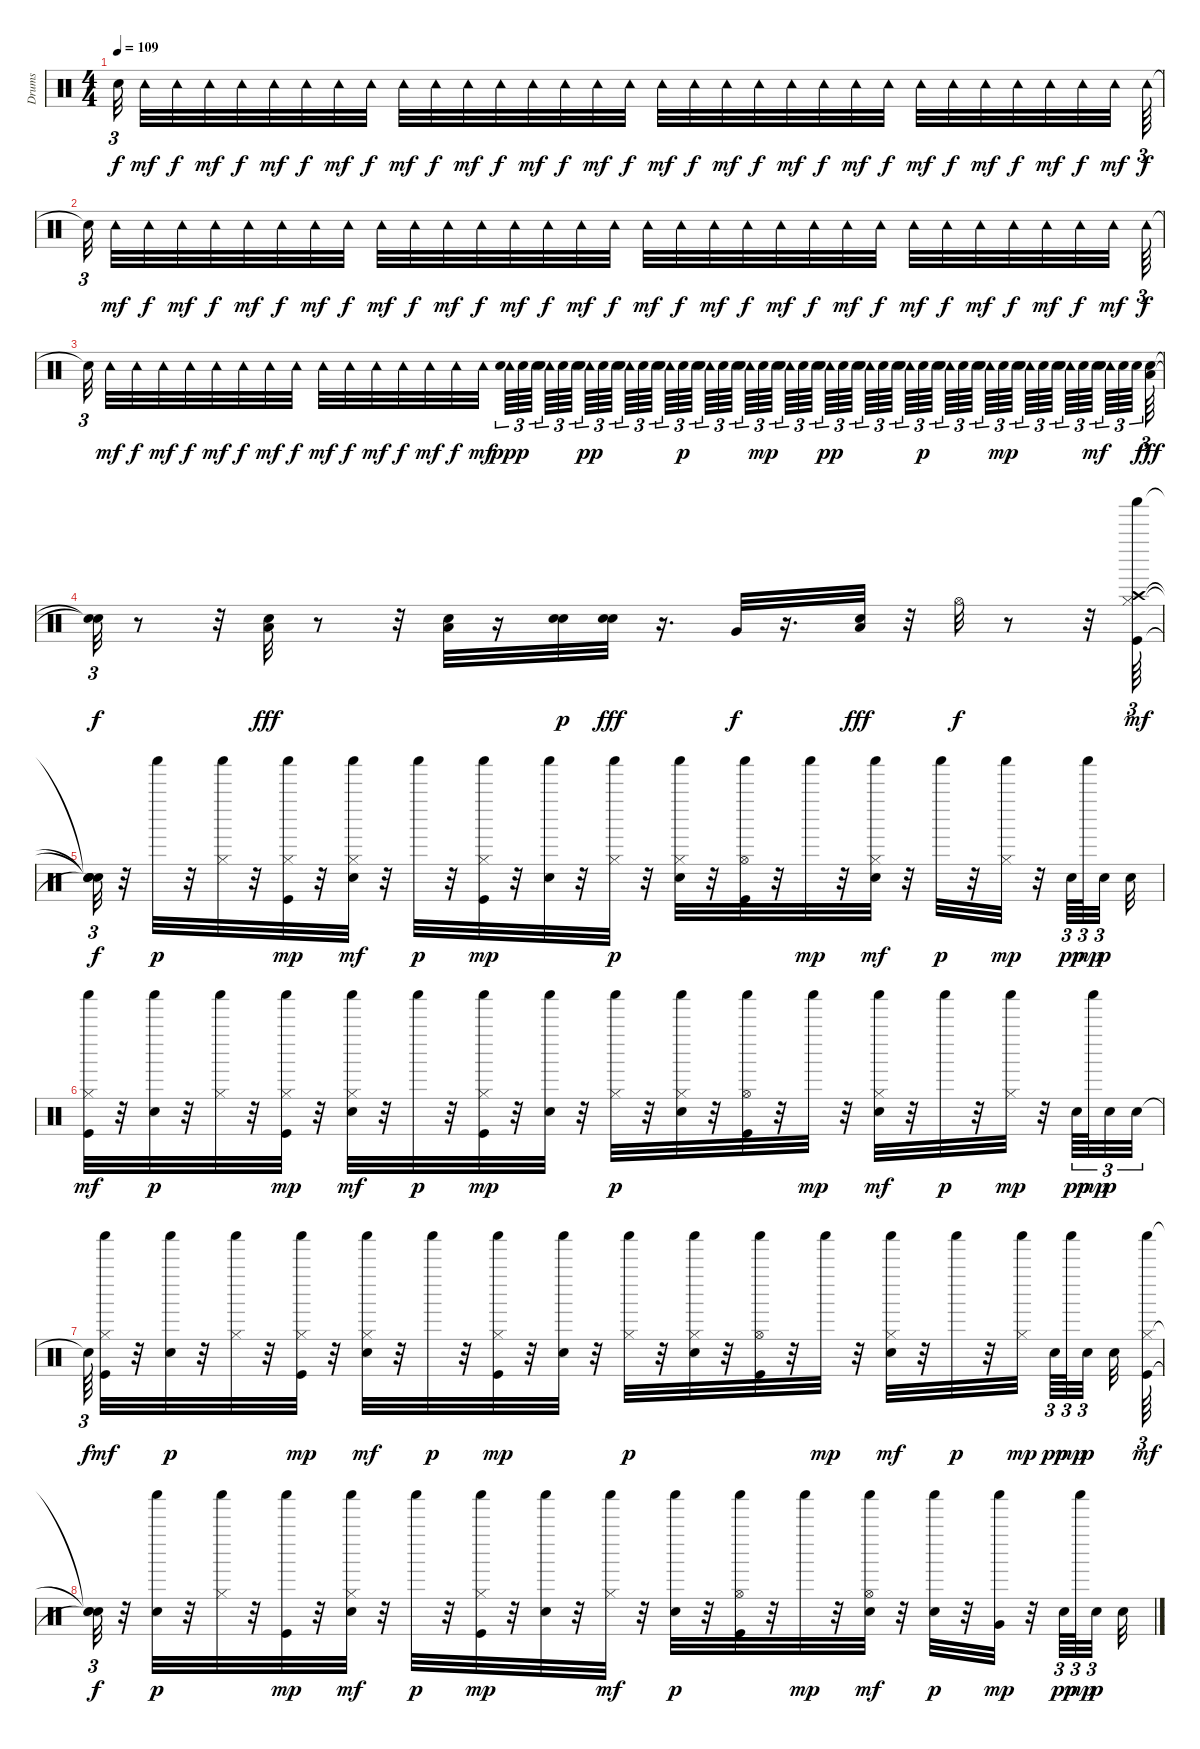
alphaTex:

\track ("Drums" "Drums") {instrument percussion}
\staff {score}
\articulation defaults
\ts (4 4)
\tempo 109
\clef neutral
\ks c "Snare (hit)"{t}.32{tu (3 2) dy f beam splitsecondary} "Tambourine (hit)".32{dy mf} "Tambourine (hit)".32{dy f} "Tambourine (hit)".32{dy mf} "Tambourine (hit)".32{dy f} "Tambourine (hit)".32{dy mf} "Tambourine (hit)".32{dy f} "Tambourine (hit)".32{dy mf} "Tambourine (hit)".32{dy f} "Tambourine (hit)".32{dy mf} "Tambourine (hit)".32{dy f} "Tambourine (hit)".32{dy mf} "Tambourine (hit)".32{dy f} "Tambourine (hit)".32{dy mf} "Tambourine (hit)".32{dy f} "Tambourine (hit)".32{dy mf} "Tambourine (hit)".32{dy f} "Tambourine (hit)".32{dy mf} "Tambourine (hit)".32{dy f} "Tambourine (hit)".32{dy mf} "Tambourine (hit)".32{dy f} "Tambourine (hit)".32{dy mf} "Tambourine (hit)".32{dy f} "Tambourine (hit)".32{dy mf} "Tambourine (hit)".32{dy f} "Tambourine (hit)".32{dy mf} "Tambourine (hit)".32{dy f} "Tambourine (hit)".32{dy mf} "Tambourine (hit)".32{dy f} "Tambourine (hit)".32{dy mf} "Tambourine (hit)".32{dy f} "Tambourine (hit)".32{dy mf beam splitsecondary} "Tambourine (hit)".64{tu (3 2) dy f}
|
"Snare (hit)"{t}.32{tu (3 2) beam splitsecondary} "Tambourine (hit)".32{dy mf} "Tambourine (hit)".32{dy f} "Tambourine (hit)".32{dy mf} "Tambourine (hit)".32{dy f} "Tambourine (hit)".32{dy mf} "Tambourine (hit)".32{dy f} "Tambourine (hit)".32{dy mf} "Tambourine (hit)".32{dy f} "Tambourine (hit)".32{dy mf} "Tambourine (hit)".32{dy f} "Tambourine (hit)".32{dy mf} "Tambourine (hit)".32{dy f} "Tambourine (hit)".32{dy mf} "Tambourine (hit)".32{dy f} "Tambourine (hit)".32{dy mf} "Tambourine (hit)".32{dy f} "Tambourine (hit)".32{dy mf} "Tambourine (hit)".32{dy f} "Tambourine (hit)".32{dy mf} "Tambourine (hit)".32{dy f} "Tambourine (hit)".32{dy mf} "Tambourine (hit)".32{dy f} "Tambourine (hit)".32{dy mf} "Tambourine (hit)".32{dy f} "Tambourine (hit)".32{dy mf} "Tambourine (hit)".32{dy f} "Tambourine (hit)".32{dy mf} "Tambourine (hit)".32{dy f} "Tambourine (hit)".32{dy mf} "Tambourine (hit)".32{dy f} "Tambourine (hit)".32{dy mf beam splitsecondary} "Tambourine (hit)".64{tu (3 2) dy f} |
"Snare (hit)"{t}.32{tu (3 2) beam splitsecondary} "Tambourine (hit)".32{dy mf} "Tambourine (hit)".32{dy f} "Tambourine (hit)".32{dy mf} "Tambourine (hit)".32{dy f} "Tambourine (hit)".32{dy mf} "Tambourine (hit)".32{dy f} "Tambourine (hit)".32{dy mf} "Tambourine (hit)".32{dy f} "Tambourine (hit)".32{dy mf} "Tambourine (hit)".32{dy f} "Tambourine (hit)".32{dy mf} "Tambourine (hit)".32{dy f} "Tambourine (hit)".32{dy mf} "Tambourine (hit)".32{dy f} "Tambourine (hit)".32{dy mf beam splitsecondary} ("Tambourine (hit)" "Snare (hit) 2").64{tu (3 2) dy ppp} "Snare (hit) 2".64{tu (3 2)} "Snare (hit) 2".64{tu (3 2) beam splitsecondary} ("Tambourine (hit)" "Snare (hit) 2").64{tu (3 2)} "Snare (hit) 2".64{tu (3 2)} "Snare (hit) 2".64{tu (3 2) beam splitsecondary} ("Tambourine (hit)" "Snare (hit) 2").64{tu (3 2) dy pp} "Snare (hit) 2".64{tu (3 2)} "Snare (hit) 2".64{tu (3 2) beam splitsecondary} ("Tambourine (hit)" "Snare (hit) 2").64{tu (3 2)} "Snare (hit) 2".64{tu (3 2)} "Snare (hit) 2".64{tu (3 2) beam splitsecondary} ("Tambourine (hit)" "Snare (hit) 2").64{tu (3 2)} "Snare (hit) 2".64{tu (3 2) dy p} "Snare (hit) 2".64{tu (3 2) beam splitsecondary} ("Tambourine (hit)" "Snare (hit) 2").64{tu (3 2)} "Snare (hit) 2".64{tu (3 2)} "Snare (hit) 2".64{tu (3 2) beam splitsecondary} ("Tambourine (hit)" "Snare (hit) 2").64{tu (3 2)} "Snare (hit) 2".64{tu (3 2) dy mp} "Snare (hit) 2".64{tu (3 2) beam splitsecondary} ("Tambourine (hit)" "Snare (hit) 2").64{tu (3 2)} "Snare (hit) 2".64{tu (3 2)} "Snare (hit) 2".64{tu (3 2) beam splitsecondary} ("Tambourine (hit)" "Snare (hit) 2").64{tu (3 2) dy pp} "Snare (hit) 2".64{tu (3 2)} "Snare (hit) 2".64{tu (3 2) beam splitsecondary} ("Tambourine (hit)" "Snare (hit) 2").64{tu (3 2)} "Snare (hit) 2".64{tu (3 2)} "Snare (hit) 2".64{tu (3 2) beam splitsecondary} ("Tambourine (hit)" "Snare (hit) 2").64{tu (3 2)} "Snare (hit) 2".64{tu (3 2) dy p} "Snare (hit) 2".64{tu (3 2) beam splitsecondary} ("Tambourine (hit)" "Snare (hit) 2").64{tu (3 2)} "Snare (hit) 2".64{tu (3 2)} "Snare (hit) 2".64{tu (3 2) beam splitsecondary} ("Tambourine (hit)" "Snare (hit) 2").64{tu (3 2)} "Snare (hit) 2".64{tu (3 2) dy mp} "Snare (hit) 2".64{tu (3 2) beam splitsecondary} ("Tambourine (hit)" "Snare (hit) 2").64{tu (3 2)} "Snare (hit) 2".64{tu (3 2)} "Snare (hit) 2".64{tu (3 2) beam splitsecondary} ("Tambourine (hit)" "Snare (hit) 2").64{tu (3 2)} "Snare (hit) 2".64{tu (3 2)} "Snare (hit) 2".64{tu (3 2) dy mf beam splitsecondary} ("Tambourine (hit)" "Snare (hit) 2").64{tu (3 2)} "Snare (hit) 2".64{tu (3 2)} "Snare (hit) 2".64{tu (3 2) beam splitsecondary} ("Low Floor Tom (hit)" "Snare (hit) 2").64{tu (3 2) dy fff} |
("Snare (hit)"{t} "Snare (hit)"{t}).32{tu (3 2) dy f} r.8 r.32 ("Low Floor Tom (hit)" "Snare (hit) 2").32{dy fff} r.8 r.32 ("Low Floor Tom (hit)" "Snare (hit) 2").32 r.16 ("Snare (hit) 2" "Snare (hit) 2").32{dy p} ("Snare (hit) 2" "Snare (hit) 2").32{dy fff} r.16{d} "Very Low Tom (hit)".32{dy f} r.16{d} ("Low Floor Tom (hit)" "Snare (hit) 2").32{dy fff} r.32 "Hi-Hat (open)".32{dy f} r.8 r.32 ("Kick (hit)" "Crash high (hit)" "Hi-Hat (closed)" "Shaker (hit)").64{tu (3 2) dy mf} |
("Snare (hit)"{t} "Snare (hit)"{t} "Snare (hit)"{t} "Snare (hit)"{t}).32{tu (3 2) dy f} r.32 "Shaker (hit)".32{dy p} r.32 ("Hi-Hat (closed)" "Shaker (hit)").32 r.32 ("Kick (hit)" "Hi-Hat (closed)" "Shaker (hit)").32{dy mp} r.32 ("Snare (hit) 2" "Hi-Hat (closed)" "Shaker (hit)").32{dy mf} r.32 "Shaker (hit)".32{dy p} r.32 ("Kick (hit)" "Hi-Hat (closed)" "Shaker (hit)").32{dy mp} r.32 ("Snare (hit) 2" "Shaker (hit)").32 r.32 ("Hi-Hat (closed)" "Shaker (hit)").32{dy p} r.32 ("Snare (hit) 2" "Hi-Hat (closed)" "Shaker (hit)").32 r.32 ("Kick (hit)" "Hi-Hat (open)" "Shaker (hit)").32 r.32 "Shaker (hit)".32{dy mp} r.32 ("Snare (hit) 2" "Hi-Hat (closed)" "Shaker (hit)").32{dy mf} r.32 "Shaker (hit)".32{dy p} r.32 ("Hi-Hat (closed)" "Shaker (hit)").32{dy mp} r.32 "Snare (hit) 2".64{tu (3 2) dy pp} "Shaker (hit)".64{tu (3 2) dy mp} "Snare (hit) 2".32{tu (3 2) dy p beam splitsecondary} "Snare (hit) 2".32 |
("Kick (hit)" "Hi-Hat (closed)" "Shaker (hit)").32{dy mf} r.32 ("Snare (hit) 2" "Shaker (hit)").32{dy p} r.32 ("Hi-Hat (closed)" "Shaker (hit)").32 r.32 ("Kick (hit)" "Hi-Hat (closed)" "Shaker (hit)").32{dy mp} r.32 ("Snare (hit) 2" "Hi-Hat (closed)" "Shaker (hit)").32{dy mf} r.32 "Shaker (hit)".32{dy p} r.32 ("Kick (hit)" "Hi-Hat (closed)" "Shaker (hit)").32{dy mp} r.32 ("Snare (hit) 2" "Shaker (hit)").32 r.32 ("Hi-Hat (closed)" "Shaker (hit)").32{dy p} r.32 ("Snare (hit) 2" "Hi-Hat (closed)" "Shaker (hit)").32 r.32 ("Kick (hit)" "Hi-Hat (open)" "Shaker (hit)").32 r.32 "Shaker (hit)".32{dy mp} r.32 ("Snare (hit) 2" "Hi-Hat (closed)" "Shaker (hit)").32{dy mf} r.32 "Shaker (hit)".32{dy p} r.32 ("Hi-Hat (closed)" "Shaker (hit)").32{dy mp} r.32 "Snare (hit) 2".64{tu (3 2) dy pp} "Shaker (hit)".64{tu (3 2) dy mp} "Snare (hit) 2".32{tu (3 2) dy p} "Snare (hit) 2".32{tu (3 2)} |
"Snare (hit)"{t}.64{tu (3 2) dy f} ("Kick (hit)" "Hi-Hat (closed)" "Shaker (hit)").32{dy mf} r.32 ("Snare (hit) 2" "Shaker (hit)").32{dy p} r.32 ("Hi-Hat (closed)" "Shaker (hit)").32 r.32 ("Kick (hit)" "Hi-Hat (closed)" "Shaker (hit)").32{dy mp} r.32 ("Snare (hit) 2" "Hi-Hat (closed)" "Shaker (hit)").32{dy mf} r.32 "Shaker (hit)".32{dy p} r.32 ("Kick (hit)" "Hi-Hat (closed)" "Shaker (hit)").32{dy mp} r.32 ("Snare (hit) 2" "Shaker (hit)").32 r.32 ("Hi-Hat (closed)" "Shaker (hit)").32{dy p} r.32 ("Snare (hit) 2" "Hi-Hat (closed)" "Shaker (hit)").32 r.32 ("Kick (hit)" "Hi-Hat (open)" "Shaker (hit)").32 r.32 "Shaker (hit)".32{dy mp} r.32 ("Snare (hit) 2" "Hi-Hat (closed)" "Shaker (hit)").32{dy mf} r.32 "Shaker (hit)".32{dy p} r.32 ("Hi-Hat (closed)" "Shaker (hit)").32{dy mp beam splitsecondary} "Snare (hit) 2".64{tu (3 2) dy pp} "Shaker (hit)".64{tu (3 2) dy mp} "Snare (hit) 2".32{tu (3 2) dy p beam splitsecondary} "Snare (hit) 2".32 ("Kick (hit)" "Hi-Hat (closed)" "Shaker (hit)").64{tu (3 2) dy mf} |
("Snare (hit)"{t} "Snare (hit)"{t} "Snare (hit)"{t}).32{tu (3 2) dy f} r.32 ("Snare (hit) 2" "Shaker (hit)").32{dy p} r.32 ("Hi-Hat (closed)" "Shaker (hit)").32 r.32 ("Kick (hit)" "Shaker (hit)").32{dy mp} r.32 ("Snare (hit) 2" "Hi-Hat (closed)" "Shaker (hit)").32{dy mf} r.32 "Shaker (hit)".32{dy p} r.32 ("Kick (hit)" "Hi-Hat (closed)" "Shaker (hit)").32{dy mp} r.32 ("Snare (hit) 2" "Shaker (hit)").32 r.32 ("Hi-Hat (closed)" "Shaker (hit)").32{dy mf} r.32 ("Snare (hit) 2" "Shaker (hit)").32{dy p} r.32 ("Kick (hit)" "Hi-Hat (open)" "Shaker (hit)").32 r.32 "Shaker (hit)".32{dy mp} r.32 ("Snare (hit) 2" "Hi-Hat (open)" "Shaker (hit)").32{dy mf} r.32 ("Snare (hit) 2" "Shaker (hit)").32{dy p} r.32 ("Very Low Tom (hit)" "Shaker (hit)").32{dy mp} r.32 "Snare (hit) 2".64{tu (3 2) dy pp} "Shaker (hit)".64{tu (3 2) dy mp} "Snare (hit) 2".32{tu (3 2) dy p beam splitsecondary} "Snare (hit) 2".32
